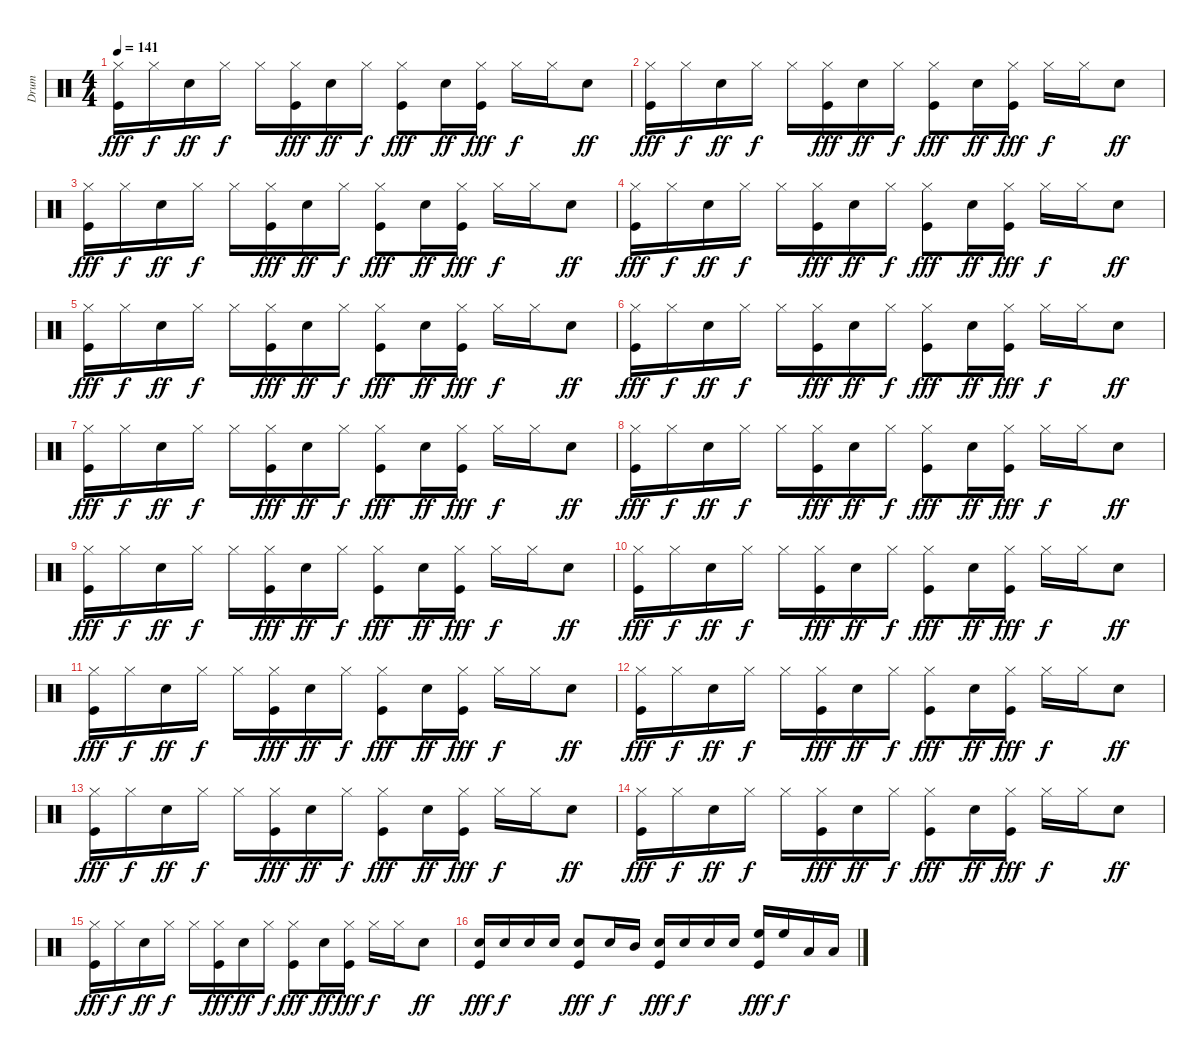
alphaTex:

\track ("Drum" "Drum") {instrument percussion}
\staff {score}
\articulation defaults
\ts (4 4)
\tempo 141
\clef neutral
\ks c
("Hi-Hat (closed)" "Kick (hit)").16{dy fff} "Hi-Hat (closed)".16{dy f} "Electric Snare (hit)".16{dy ff} "Hi-Hat (closed)".16{dy f} "Hi-Hat (closed)".16 ("Hi-Hat (closed)" "Kick (hit)").16{dy fff} "Electric Snare (hit)".16{dy ff} "Hi-Hat (closed)".16{dy f} ("Hi-Hat (closed)" "Kick (hit)").8{dy fff} "Electric Snare (hit)".16{dy ff} ("Hi-Hat (closed)" "Kick (hit)").16{dy fff} "Hi-Hat (closed)".16{dy f} "Hi-Hat (closed)".16 "Electric Snare (hit)".8{dy ff} |
("Hi-Hat (closed)" "Kick (hit)").16{dy fff} "Hi-Hat (closed)".16{dy f} "Electric Snare (hit)".16{dy ff} "Hi-Hat (closed)".16{dy f} "Hi-Hat (closed)".16 ("Hi-Hat (closed)" "Kick (hit)").16{dy fff} "Electric Snare (hit)".16{dy ff} "Hi-Hat (closed)".16{dy f} ("Hi-Hat (closed)" "Kick (hit)").8{dy fff} "Electric Snare (hit)".16{dy ff} ("Hi-Hat (closed)" "Kick (hit)").16{dy fff} "Hi-Hat (closed)".16{dy f} "Hi-Hat (closed)".16 "Electric Snare (hit)".8{dy ff} |
("Hi-Hat (closed)" "Kick (hit)").16{dy fff} "Hi-Hat (closed)".16{dy f} "Electric Snare (hit)".16{dy ff} "Hi-Hat (closed)".16{dy f} "Hi-Hat (closed)".16 ("Hi-Hat (closed)" "Kick (hit)").16{dy fff} "Electric Snare (hit)".16{dy ff} "Hi-Hat (closed)".16{dy f} ("Hi-Hat (closed)" "Kick (hit)").8{dy fff} "Electric Snare (hit)".16{dy ff} ("Hi-Hat (closed)" "Kick (hit)").16{dy fff} "Hi-Hat (closed)".16{dy f} "Hi-Hat (closed)".16 "Electric Snare (hit)".8{dy ff} |
("Hi-Hat (closed)" "Kick (hit)").16{dy fff} "Hi-Hat (closed)".16{dy f} "Electric Snare (hit)".16{dy ff} "Hi-Hat (closed)".16{dy f} "Hi-Hat (closed)".16 ("Hi-Hat (closed)" "Kick (hit)").16{dy fff} "Electric Snare (hit)".16{dy ff} "Hi-Hat (closed)".16{dy f} ("Hi-Hat (closed)" "Kick (hit)").8{dy fff} "Electric Snare (hit)".16{dy ff} ("Hi-Hat (closed)" "Kick (hit)").16{dy fff} "Hi-Hat (closed)".16{dy f} "Hi-Hat (closed)".16 "Electric Snare (hit)".8{dy ff} |
("Hi-Hat (closed)" "Kick (hit)").16{dy fff} "Hi-Hat (closed)".16{dy f} "Electric Snare (hit)".16{dy ff} "Hi-Hat (closed)".16{dy f} "Hi-Hat (closed)".16 ("Hi-Hat (closed)" "Kick (hit)").16{dy fff} "Electric Snare (hit)".16{dy ff} "Hi-Hat (closed)".16{dy f} ("Hi-Hat (closed)" "Kick (hit)").8{dy fff} "Electric Snare (hit)".16{dy ff} ("Hi-Hat (closed)" "Kick (hit)").16{dy fff} "Hi-Hat (closed)".16{dy f} "Hi-Hat (closed)".16 "Electric Snare (hit)".8{dy ff} |
("Hi-Hat (closed)" "Kick (hit)").16{dy fff} "Hi-Hat (closed)".16{dy f} "Electric Snare (hit)".16{dy ff} "Hi-Hat (closed)".16{dy f} "Hi-Hat (closed)".16 ("Hi-Hat (closed)" "Kick (hit)").16{dy fff} "Electric Snare (hit)".16{dy ff} "Hi-Hat (closed)".16{dy f} ("Hi-Hat (closed)" "Kick (hit)").8{dy fff} "Electric Snare (hit)".16{dy ff} ("Hi-Hat (closed)" "Kick (hit)").16{dy fff} "Hi-Hat (closed)".16{dy f} "Hi-Hat (closed)".16 "Electric Snare (hit)".8{dy ff} |
("Hi-Hat (closed)" "Kick (hit)").16{dy fff} "Hi-Hat (closed)".16{dy f} "Electric Snare (hit)".16{dy ff} "Hi-Hat (closed)".16{dy f} "Hi-Hat (closed)".16 ("Hi-Hat (closed)" "Kick (hit)").16{dy fff} "Electric Snare (hit)".16{dy ff} "Hi-Hat (closed)".16{dy f} ("Hi-Hat (closed)" "Kick (hit)").8{dy fff} "Electric Snare (hit)".16{dy ff} ("Hi-Hat (closed)" "Kick (hit)").16{dy fff} "Hi-Hat (closed)".16{dy f} "Hi-Hat (closed)".16 "Electric Snare (hit)".8{dy ff} |
("Hi-Hat (closed)" "Kick (hit)").16{dy fff} "Hi-Hat (closed)".16{dy f} "Electric Snare (hit)".16{dy ff} "Hi-Hat (closed)".16{dy f} "Hi-Hat (closed)".16 ("Hi-Hat (closed)" "Kick (hit)").16{dy fff} "Electric Snare (hit)".16{dy ff} "Hi-Hat (closed)".16{dy f} ("Hi-Hat (closed)" "Kick (hit)").8{dy fff} "Electric Snare (hit)".16{dy ff} ("Hi-Hat (closed)" "Kick (hit)").16{dy fff} "Hi-Hat (closed)".16{dy f} "Hi-Hat (closed)".16 "Electric Snare (hit)".8{dy ff} |
("Hi-Hat (closed)" "Kick (hit)").16{dy fff} "Hi-Hat (closed)".16{dy f} "Electric Snare (hit)".16{dy ff} "Hi-Hat (closed)".16{dy f} "Hi-Hat (closed)".16 ("Hi-Hat (closed)" "Kick (hit)").16{dy fff} "Electric Snare (hit)".16{dy ff} "Hi-Hat (closed)".16{dy f} ("Hi-Hat (closed)" "Kick (hit)").8{dy fff} "Electric Snare (hit)".16{dy ff} ("Hi-Hat (closed)" "Kick (hit)").16{dy fff} "Hi-Hat (closed)".16{dy f} "Hi-Hat (closed)".16 "Electric Snare (hit)".8{dy ff} |
("Hi-Hat (closed)" "Kick (hit)").16{dy fff} "Hi-Hat (closed)".16{dy f} "Electric Snare (hit)".16{dy ff} "Hi-Hat (closed)".16{dy f} "Hi-Hat (closed)".16 ("Hi-Hat (closed)" "Kick (hit)").16{dy fff} "Electric Snare (hit)".16{dy ff} "Hi-Hat (closed)".16{dy f} ("Hi-Hat (closed)" "Kick (hit)").8{dy fff} "Electric Snare (hit)".16{dy ff} ("Hi-Hat (closed)" "Kick (hit)").16{dy fff} "Hi-Hat (closed)".16{dy f} "Hi-Hat (closed)".16 "Electric Snare (hit)".8{dy ff} |
("Hi-Hat (closed)" "Kick (hit)").16{dy fff} "Hi-Hat (closed)".16{dy f} "Electric Snare (hit)".16{dy ff} "Hi-Hat (closed)".16{dy f} "Hi-Hat (closed)".16 ("Hi-Hat (closed)" "Kick (hit)").16{dy fff} "Electric Snare (hit)".16{dy ff} "Hi-Hat (closed)".16{dy f} ("Hi-Hat (closed)" "Kick (hit)").8{dy fff} "Electric Snare (hit)".16{dy ff} ("Hi-Hat (closed)" "Kick (hit)").16{dy fff} "Hi-Hat (closed)".16{dy f} "Hi-Hat (closed)".16 "Electric Snare (hit)".8{dy ff} |
("Hi-Hat (closed)" "Kick (hit)").16{dy fff} "Hi-Hat (closed)".16{dy f} "Electric Snare (hit)".16{dy ff} "Hi-Hat (closed)".16{dy f} "Hi-Hat (closed)".16 ("Hi-Hat (closed)" "Kick (hit)").16{dy fff} "Electric Snare (hit)".16{dy ff} "Hi-Hat (closed)".16{dy f} ("Hi-Hat (closed)" "Kick (hit)").8{dy fff} "Electric Snare (hit)".16{dy ff} ("Hi-Hat (closed)" "Kick (hit)").16{dy fff} "Hi-Hat (closed)".16{dy f} "Hi-Hat (closed)".16 "Electric Snare (hit)".8{dy ff} |
("Hi-Hat (closed)" "Kick (hit)").16{dy fff} "Hi-Hat (closed)".16{dy f} "Electric Snare (hit)".16{dy ff} "Hi-Hat (closed)".16{dy f} "Hi-Hat (closed)".16 ("Hi-Hat (closed)" "Kick (hit)").16{dy fff} "Electric Snare (hit)".16{dy ff} "Hi-Hat (closed)".16{dy f} ("Hi-Hat (closed)" "Kick (hit)").8{dy fff} "Electric Snare (hit)".16{dy ff} ("Hi-Hat (closed)" "Kick (hit)").16{dy fff} "Hi-Hat (closed)".16{dy f} "Hi-Hat (closed)".16 "Electric Snare (hit)".8{dy ff} |
("Hi-Hat (closed)" "Kick (hit)").16{dy fff} "Hi-Hat (closed)".16{dy f} "Electric Snare (hit)".16{dy ff} "Hi-Hat (closed)".16{dy f} "Hi-Hat (closed)".16 ("Hi-Hat (closed)" "Kick (hit)").16{dy fff} "Electric Snare (hit)".16{dy ff} "Hi-Hat (closed)".16{dy f} ("Hi-Hat (closed)" "Kick (hit)").8{dy fff} "Electric Snare (hit)".16{dy ff} ("Hi-Hat (closed)" "Kick (hit)").16{dy fff} "Hi-Hat (closed)".16{dy f} "Hi-Hat (closed)".16 "Electric Snare (hit)".8{dy ff} |
("Hi-Hat (closed)" "Kick (hit)").16{dy fff} "Hi-Hat (closed)".16{dy f} "Electric Snare (hit)".16{dy ff} "Hi-Hat (closed)".16{dy f} "Hi-Hat (closed)".16 ("Hi-Hat (closed)" "Kick (hit)").16{dy fff} "Electric Snare (hit)".16{dy ff} "Hi-Hat (closed)".16{dy f} ("Hi-Hat (closed)" "Kick (hit)").8{dy fff} "Electric Snare (hit)".16{dy ff} ("Hi-Hat (closed)" "Kick (hit)").16{dy fff} "Hi-Hat (closed)".16{dy f} "Hi-Hat (closed)".16 "Electric Snare (hit)".8{dy ff} |
("Electric Snare (hit)" "Kick (hit)").16{dy fff} "Electric Snare (hit)".16{dy f} "Electric Snare (hit)".16 "Electric Snare (hit)".16 ("Electric Snare (hit)" "Kick (hit)").8{dy fff} "Electric Snare (hit)".16{dy f} "Mid Tom (hit)".16 ("Electric Snare (hit)" "Kick (hit)").16{dy fff} "Electric Snare (hit)".16{dy f} "Electric Snare (hit)".16 "Electric Snare (hit)".16 ("High Floor Tom (hit)" "Kick (hit)").16{dy fff} "High Floor Tom (hit)".16{dy f} "Low Tom (hit)".16 "Low Tom (hit)".16
